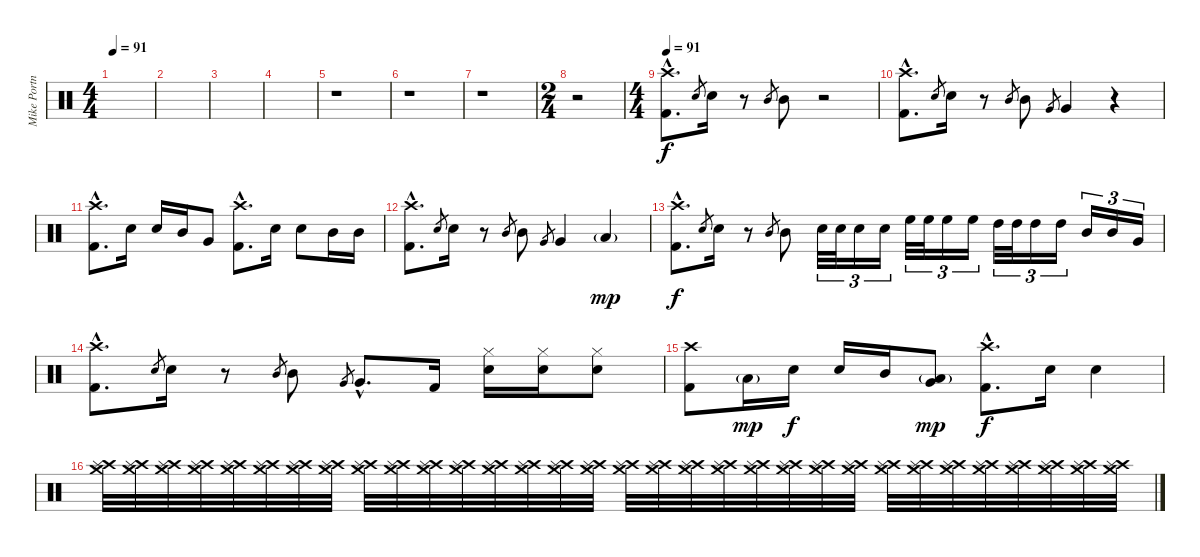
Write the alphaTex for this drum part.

\track ("Mike Portnoy" "Mike Portn") {instrument percussion}
\staff {score}
\articulation defaults
\ts (4 4)
\tempo 91
\clef neutral
\ks c
|
|
|
|
r.1 |
r.1 |
r.1 |
\ts (2 4)
r.2 |
\ts (4 4)
\tempo 91
("Crash high (hit)"{hac} "Kick (hit) 2"{hac}).8{d} "Electric Snare (hit)".8{gr} "Electric Snare (hit)".16 r.8 "Mid Tom (hit)".8{gr} "Mid Tom (hit)".8 r.2 |
("Crash high (hit)"{hac} "Kick (hit) 2"{hac}).8{d} "Electric Snare (hit)".8{gr} "Electric Snare (hit)".16 r.8 "Mid Tom (hit)".8{gr} "Mid Tom (hit)".8 "Very Low Tom (hit)".8{gr} "Very Low Tom (hit)".4 r.4 |
("Crash high (hit)"{hac} "Kick (hit) 2"{hac}).8{d} "Electric Snare (hit)".16 "Electric Snare (hit)".16 "Mid Tom (hit)".16 "Very Low Tom (hit)".8 ("Crash high (hit)"{hac} "Kick (hit) 2"{hac}).8{d} "Electric Snare (hit)".16 "Electric Snare (hit)".8 "Mid Tom (hit)".16 "Mid Tom (hit)".16 |
("Crash high (hit)"{hac} "Kick (hit) 2"{hac}).8{d} "Electric Snare (hit)".8{gr} "Electric Snare (hit)".16 r.8 "Mid Tom (hit)".8{gr} "Mid Tom (hit)".8 "Very Low Tom (hit)".8{gr} "Very Low Tom (hit)".4 "Low Floor Tom (hit)"{g}.4{dy mp} |
("Crash high (hit)"{hac} "Kick (hit) 2"{hac}).8{d dy f} "Electric Snare (hit)".8{gr} "Electric Snare (hit)".16 r.8 "Mid Tom (hit)".8{gr} "Mid Tom (hit)".8 "Electric Snare (hit)".32{tu (3 2)} "Electric Snare (hit)".32{tu (3 2)} "Electric Snare (hit)".16{tu (3 2)} "Electric Snare (hit)".16{tu (3 2)} "High Floor Tom (hit)".32{tu (3 2)} "High Floor Tom (hit)".32{tu (3 2)} "High Floor Tom (hit)".16{tu (3 2)} "High Floor Tom (hit)".16{tu (3 2)} "High Tom (hit)".32{tu (3 2)} "High Tom (hit)".32{tu (3 2)} "High Tom (hit)".16{tu (3 2)} "High Tom (hit)".16{tu (3 2)} "Mid Tom (hit)".16{tu (3 2)} "Mid Tom (hit)".16{tu (3 2)} "Very Low Tom (hit)".16{tu (3 2)} |
("Crash high (hit)"{hac} "Kick (hit) 2"{hac}).8{d} "Electric Snare (hit)".8{gr} "Electric Snare (hit)".16 r.8 "Mid Tom (hit)".8{gr} "Mid Tom (hit)".8 "Very Low Tom (hit)".8{gr} "Very Low Tom (hit)"{hac}.8{d} "Kick (hit) 2".16 ("Hi-Hat (closed)" "Electric Snare (hit)").16 ("Hi-Hat (closed)" "Electric Snare (hit)").16 ("Hi-Hat (closed)" "Electric Snare (hit)").8 |
("Crash high (hit)" "Kick (hit) 2").8 "Low Floor Tom (hit)"{g}.16{dy mp} "Electric Snare (hit)".16{dy f} "Electric Snare (hit)".16 "Mid Tom (hit)".16 ("Very Low Tom (hit)" "Low Floor Tom (hit)"{g}).8{dy mp} ("Crash high (hit)"{hac} "Kick (hit) 2"{hac}).8{d dy f} "Electric Snare (hit)".16 "Electric Snare (hit)".4 |
("Crash high (hit)" "Crash medium (hit)" "Splash (hit)").32{volume 7} ("Crash high (hit)" "Crash medium (hit)" "Splash (hit)").32 ("Crash high (hit)" "Crash medium (hit)" "Splash (hit)").32 ("Crash high (hit)" "Crash medium (hit)" "Splash (hit)").32 ("Crash high (hit)" "Crash medium (hit)" "Splash (hit)").32 ("Crash high (hit)" "Crash medium (hit)" "Splash (hit)").32 ("Crash high (hit)" "Crash medium (hit)" "Splash (hit)").32 ("Crash high (hit)" "Crash medium (hit)" "Splash (hit)").32 ("Crash high (hit)" "Crash medium (hit)" "Splash (hit)").32{volume 8} ("Crash high (hit)" "Crash medium (hit)" "Splash (hit)").32 ("Crash high (hit)" "Crash medium (hit)" "Splash (hit)").32 ("Crash high (hit)" "Crash medium (hit)" "Splash (hit)").32 ("Crash high (hit)" "Crash medium (hit)" "Splash (hit)").32 ("Crash high (hit)" "Crash medium (hit)" "Splash (hit)").32 ("Crash high (hit)" "Crash medium (hit)" "Splash (hit)").32 ("Crash high (hit)" "Crash medium (hit)" "Splash (hit)").32 ("Crash high (hit)" "Crash medium (hit)" "Splash (hit)").32{volume 6} ("Crash high (hit)" "Crash medium (hit)" "Splash (hit)").32 ("Crash high (hit)" "Crash medium (hit)" "Splash (hit)").32 ("Crash high (hit)" "Crash medium (hit)" "Splash (hit)").32 ("Crash high (hit)" "Crash medium (hit)" "Splash (hit)").32 ("Crash high (hit)" "Crash medium (hit)" "Splash (hit)").32 ("Crash high (hit)" "Crash medium (hit)" "Splash (hit)").32 ("Crash high (hit)" "Crash medium (hit)" "Splash (hit)").32 ("Crash high (hit)" "Crash medium (hit)" "Splash (hit)").32{volume 7} ("Crash high (hit)" "Crash medium (hit)" "Splash (hit)").32 ("Crash high (hit)" "Crash medium (hit)" "Splash (hit)").32 ("Crash high (hit)" "Crash medium (hit)" "Splash (hit)").32 ("Crash high (hit)" "Crash medium (hit)" "Splash (hit)").32 ("Crash high (hit)" "Crash medium (hit)" "Splash (hit)").32 ("Crash high (hit)" "Crash medium (hit)" "Splash (hit)").32 ("Crash high (hit)" "Crash medium (hit)" "Splash (hit)").32
